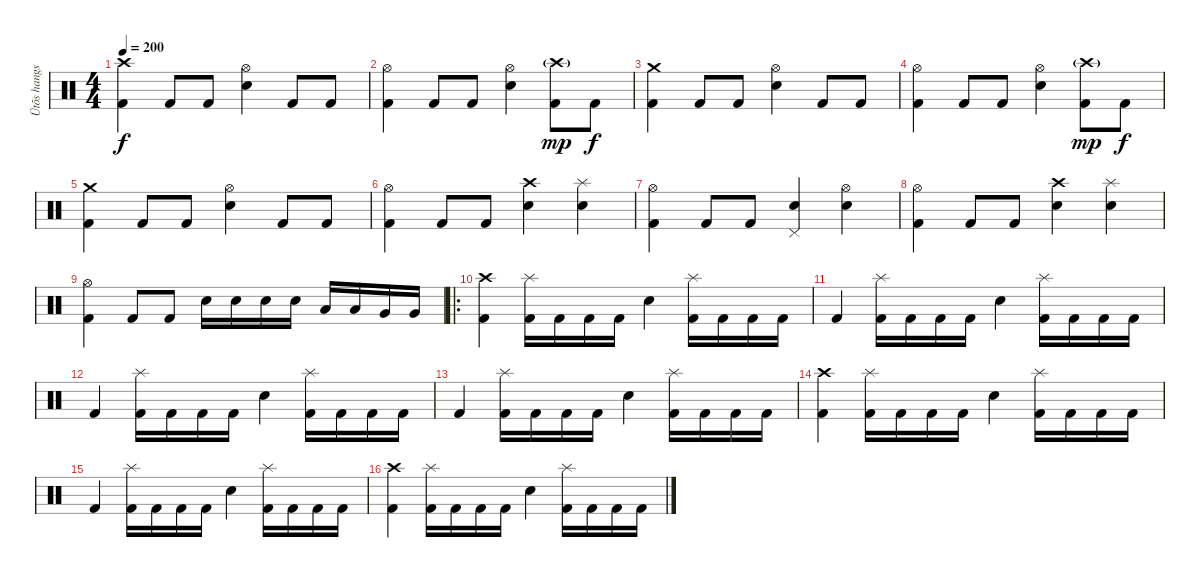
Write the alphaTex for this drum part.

\track ("Ütõs hangszer" "Ütõs hangs") {instrument percussion}
\staff {score}
\articulation defaults
\ts (4 4)
\tempo 200
\clef neutral
\ks c
("Crash high (hit)" "Kick (hit) 2").4{dy f} "Kick (hit) 2".8 "Kick (hit) 2".8 ("Hi-Hat (open)" "Snare (hit) 2").4 "Kick (hit) 2".8 "Kick (hit) 2".8 |
("Hi-Hat (open)" "Kick (hit) 2").4 "Kick (hit) 2".8 "Kick (hit) 2".8 ("Hi-Hat (open)" "Snare (hit) 2").4 ("Crash high (hit)"{g} "Kick (hit) 2").8{dy mp} "Kick (hit) 2".8{dy f} |
("Crash medium (hit)" "Kick (hit) 2").4 "Kick (hit) 2".8 "Kick (hit) 2".8 ("Hi-Hat (open)" "Snare (hit) 2").4 "Kick (hit) 2".8 "Kick (hit) 2".8 |
("Hi-Hat (open)" "Kick (hit) 2").4 "Kick (hit) 2".8 "Kick (hit) 2".8 ("Hi-Hat (open)" "Snare (hit) 2").4 ("Crash high (hit)"{g} "Kick (hit) 2").8{dy mp} "Kick (hit) 2".8{dy f} |
("Crash medium (hit)" "Kick (hit) 2").4 "Kick (hit) 2".8 "Kick (hit) 2".8 ("Hi-Hat (open)" "Snare (hit) 2").4 "Kick (hit) 2".8 "Kick (hit) 2".8 |
("Hi-Hat (open)" "Kick (hit) 2").4 "Kick (hit) 2".8 "Kick (hit) 2".8 ("Crash high (hit)" "Snare (hit) 2").4 ("Splash (hit)" "Snare (hit) 2").4 |
("Hi-Hat (open)" "Kick (hit) 2").4 "Kick (hit) 2".8 "Kick (hit) 2".8 ("Pedal Hi-Hat (hit)" "Snare (hit) 2").4 ("Hi-Hat (open)" "Snare (hit) 2").4 |
("Hi-Hat (open)" "Kick (hit) 2").4 "Kick (hit) 2".8 "Kick (hit) 2".8 ("Crash high (hit)" "Snare (hit) 2").4 ("Splash (hit)" "Snare (hit) 2").4 |
("Hi-Hat (open)" "Kick (hit) 2").4 "Kick (hit) 2".8 "Kick (hit) 2".8 "Electric Snare (hit)".16 "Electric Snare (hit)".16 "Electric Snare (hit)".16 "Electric Snare (hit)".16 "Low Tom (hit)".16 "Low Tom (hit)".16 "Very Low Tom (hit)".16 "Very Low Tom (hit)".16 |
\ro
("Crash high (hit)" "Kick (hit) 2").4 ("Splash (hit)" "Kick (hit) 2").16 "Kick (hit) 2".16 "Kick (hit) 2".16 "Kick (hit) 2".16 "Snare (hit) 2".4 ("Splash (hit)" "Kick (hit) 2").16 "Kick (hit) 2".16 "Kick (hit) 2".16 "Kick (hit) 2".16 |
"Kick (hit) 2".4 ("Splash (hit)" "Kick (hit) 2").16 "Kick (hit) 2".16 "Kick (hit) 2".16 "Kick (hit) 2".16 "Snare (hit) 2".4 ("Splash (hit)" "Kick (hit) 2").16 "Kick (hit) 2".16 "Kick (hit) 2".16 "Kick (hit) 2".16 |
"Kick (hit) 2".4 ("Splash (hit)" "Kick (hit) 2").16 "Kick (hit) 2".16 "Kick (hit) 2".16 "Kick (hit) 2".16 "Snare (hit) 2".4 ("Splash (hit)" "Kick (hit) 2").16 "Kick (hit) 2".16 "Kick (hit) 2".16 "Kick (hit) 2".16 |
"Kick (hit) 2".4 ("Splash (hit)" "Kick (hit) 2").16 "Kick (hit) 2".16 "Kick (hit) 2".16 "Kick (hit) 2".16 "Snare (hit) 2".4 ("Splash (hit)" "Kick (hit) 2").16 "Kick (hit) 2".16 "Kick (hit) 2".16 "Kick (hit) 2".16 |
("Crash high (hit)" "Kick (hit) 2").4 ("Splash (hit)" "Kick (hit) 2").16 "Kick (hit) 2".16 "Kick (hit) 2".16 "Kick (hit) 2".16 "Snare (hit) 2".4 ("Splash (hit)" "Kick (hit) 2").16 "Kick (hit) 2".16 "Kick (hit) 2".16 "Kick (hit) 2".16 |
"Kick (hit) 2".4 ("Splash (hit)" "Kick (hit) 2").16 "Kick (hit) 2".16 "Kick (hit) 2".16 "Kick (hit) 2".16 "Snare (hit) 2".4 ("Splash (hit)" "Kick (hit) 2").16 "Kick (hit) 2".16 "Kick (hit) 2".16 "Kick (hit) 2".16 |
("Crash high (hit)" "Kick (hit) 2").4 ("Splash (hit)" "Kick (hit) 2").16 "Kick (hit) 2".16 "Kick (hit) 2".16 "Kick (hit) 2".16 "Snare (hit) 2".4 ("Splash (hit)" "Kick (hit) 2").16 "Kick (hit) 2".16 "Kick (hit) 2".16 "Kick (hit) 2".16
